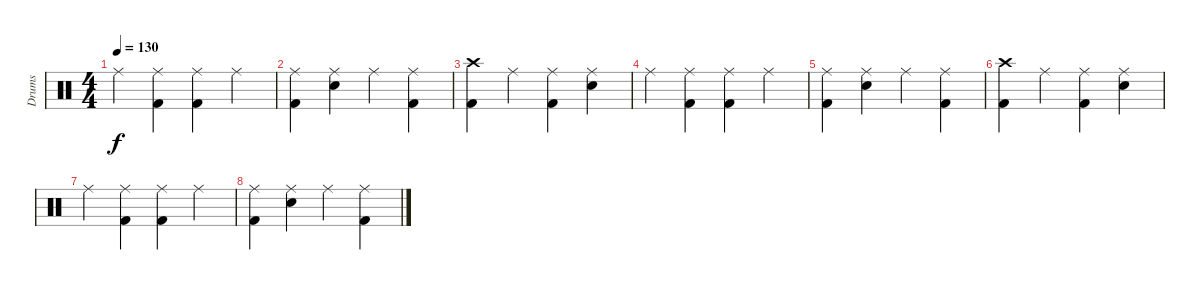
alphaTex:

\track ("Drums" "Drums") {instrument percussion}
\staff {score}
\articulation defaults
\ts (4 4)
\tempo 130
\clef neutral
\ks c "Ride (middle)".4{dy f}
("Ride (middle)" "Kick (hit) 2").4 ("Ride (middle)" "Kick (hit) 2").4 "Ride (middle)".4 |
("Ride (middle)" "Kick (hit) 2").4 ("Ride (middle)" "Electric Snare (hit)").4 "Ride (middle)".4 ("Ride (middle)" "Kick (hit) 2").4 |
("Crash high (hit)" "Kick (hit) 2").4 "Ride (middle)".4 ("Ride (middle)" "Kick (hit) 2").4 ("Ride (middle)" "Electric Snare (hit)").4 |
"Ride (middle)".4 ("Ride (middle)" "Kick (hit) 2").4 ("Ride (middle)" "Kick (hit) 2").4 "Ride (middle)".4 |
("Ride (middle)" "Kick (hit) 2").4 ("Ride (middle)" "Electric Snare (hit)").4 "Ride (middle)".4 ("Ride (middle)" "Kick (hit) 2").4 |
("Crash high (hit)" "Kick (hit) 2").4 "Ride (middle)".4 ("Ride (middle)" "Kick (hit) 2").4 ("Ride (middle)" "Electric Snare (hit)").4 |
"Ride (middle)".4{volume 0} ("Ride (middle)" "Kick (hit) 2").4 ("Ride (middle)" "Kick (hit) 2").4 "Ride (middle)".4 |
("Ride (middle)" "Kick (hit) 2").4 ("Ride (middle)" "Electric Snare (hit)").4 "Ride (middle)".4 ("Ride (middle)" "Kick (hit) 2").4
